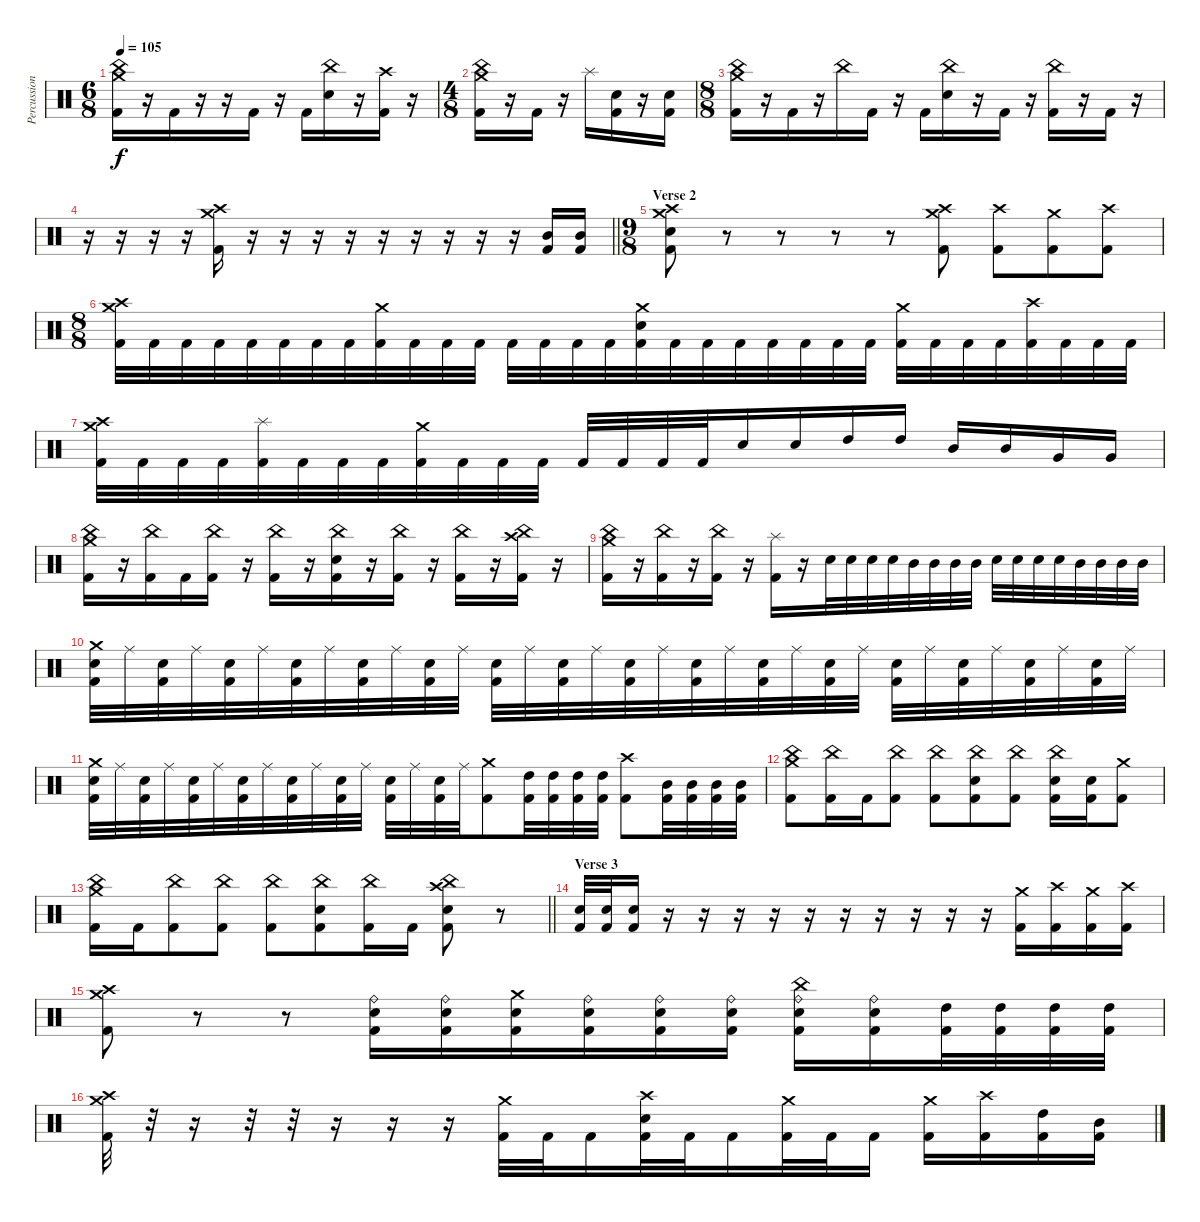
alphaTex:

\track ("Percussion" "Percussion") {instrument percussion}
\staff {score}
\articulation defaults
\ts (6 8)
\tempo 105
\clef neutral
\ks c
("Crash medium (hit)" "China (hit)" "Kick (hit) 2").16{dy f} r.16 "Kick (hit) 2".16 r.16 r.16 "Kick (hit) 2".16 r.16 "Kick (hit) 2".16 ("China (hit)" "Snare (hit) 2").16 r.16 ("Crash high (hit)" "Kick (hit) 2").16 r.16 |
\ts (4 8)
("Crash medium (hit)" "China (hit)" "Kick (hit) 2").16 r.16 "Kick (hit) 2".16 r.16 "Splash (hit)".16 ("Snare (hit) 2" "Kick (hit) 2").16 r.16 ("Snare (hit) 2" "Kick (hit) 2").16 |
\ts (8 8)
("Crash medium (hit)" "China (hit)" "Kick (hit) 2").16 r.16 "Kick (hit) 2".16 r.16 "China (hit)".16 "Kick (hit) 2".16 r.16 "Kick (hit) 2".16 ("China (hit)" "Snare (hit) 2").16 r.16 "Kick (hit) 2".16 r.16 ("China (hit)" "Kick (hit) 2").16 r.16 "Kick (hit) 2".16 r.16 |
\barLineRight lightlight
r.16 r.16 r.16 r.16 ("Crash high (hit)" "Crash medium (hit)" "Kick (hit) 2").16 r.16 r.16 r.16 r.16 r.16 r.16 r.16 r.16 r.16 ("Mid Tom (hit)" "Kick (hit) 2").16 ("Mid Tom (hit)" "Kick (hit) 2").16 |
\ts (9 8)
\section ("" "Verse 2")
("Crash high (hit)" "Crash medium (hit)" "Snare (hit) 2" "Kick (hit) 2").8 r.8 r.8 r.8 r.8 ("Crash high (hit)" "Crash medium (hit)" "Kick (hit) 2").8 ("Crash high (hit)" "Kick (hit) 2").8 ("Crash medium (hit)" "Kick (hit) 2").8 ("Crash high (hit)" "Kick (hit) 2").8 |
\ts (8 8)
("Crash medium (hit)" "Crash high (hit)" "Kick (hit) 2").32 "Kick (hit) 2".32 "Kick (hit) 2".32 "Kick (hit) 2".32 "Kick (hit) 2".32 "Kick (hit) 2".32 "Kick (hit) 2".32 "Kick (hit) 2".32 ("Crash medium (hit)" "Kick (hit) 2").32 "Kick (hit) 2".32 "Kick (hit) 2".32 "Kick (hit) 2".32 "Kick (hit) 2".32 "Kick (hit) 2".32 "Kick (hit) 2".32 "Kick (hit) 2".32 ("Crash medium (hit)" "Snare (hit) 2" "Kick (hit) 2").32 "Kick (hit) 2".32 "Kick (hit) 2".32 "Kick (hit) 2".32 "Kick (hit) 2".32 "Kick (hit) 2".32 "Kick (hit) 2".32 "Kick (hit) 2".32 ("Crash medium (hit)" "Kick (hit) 2").32 "Kick (hit) 2".32 "Kick (hit) 2".32 "Kick (hit) 2".32 ("Crash high (hit)" "Kick (hit) 2").32 "Kick (hit) 2".32 "Kick (hit) 2".32 "Kick (hit) 2".32 |
("Crash medium (hit)" "Crash high (hit)" "Kick (hit) 2").32 "Kick (hit) 2".32 "Kick (hit) 2".32 "Kick (hit) 2".32 ("Splash (hit)" "Kick (hit) 2").32 "Kick (hit) 2".32 "Kick (hit) 2".32 "Kick (hit) 2".32 ("Crash medium (hit)" "Kick (hit) 2").32 "Kick (hit) 2".32 "Kick (hit) 2".32 "Kick (hit) 2".32 "Kick (hit) 2".32 "Kick (hit) 2".32 "Kick (hit) 2".32 "Kick (hit) 2".32 "Snare (hit) 2".16 "Snare (hit) 2".16 "High Tom (hit)".16 "High Tom (hit)".16 "Mid Tom (hit)".16 "Mid Tom (hit)".16 "Very Low Tom (hit)".16 "Very Low Tom (hit)".16 |
("Crash medium (hit)" "China (hit)" "Kick (hit) 2").16 r.16 ("China (hit)" "Kick (hit) 2").16 "Kick (hit) 2".16 ("China (hit)" "Kick (hit) 2").16 r.16 ("China (hit)" "Kick (hit) 2").16 r.16 ("China (hit)" "Snare (hit) 2" "Kick (hit) 2").16 r.16 ("China (hit)" "Kick (hit) 2").16 r.16 ("China (hit)" "Kick (hit) 2").16 r.16 ("Crash high (hit)" "China (hit)" "Kick (hit) 2").16 r.16 |
("Crash medium (hit)" "China (hit)" "Kick (hit) 2").16 r.16 ("China (hit)" "Kick (hit) 2").16 r.16 ("China (hit)" "Kick (hit) 2").16 r.16 ("Splash (hit)" "Kick (hit) 2").16 r.16 "Snare (hit) 2".32 "Snare (hit) 2".32 "Snare (hit) 2".32 "Snare (hit) 2".32 "Mid Tom (hit)".32 "Mid Tom (hit)".32 "Mid Tom (hit)".32 "Mid Tom (hit)".32 "Snare (hit) 2".32 "Snare (hit) 2".32 "Snare (hit) 2".32 "Snare (hit) 2".32 "Mid Tom (hit)".32 "Mid Tom (hit)".32 "Mid Tom (hit)".32 "Mid Tom (hit)".32 |
("Crash medium (hit)" "Snare (hit) 2" "Kick (hit) 2").32 "Ride (middle)".32 ("Snare (hit) 2" "Kick (hit) 2").32 "Ride (middle)".32 ("Snare (hit) 2" "Kick (hit) 2").32 "Ride (middle)".32 ("Snare (hit) 2" "Kick (hit) 2").32 "Ride (middle)".32 ("Snare (hit) 2" "Kick (hit) 2").32 "Ride (middle)".32 ("Snare (hit) 2" "Kick (hit) 2").32 "Ride (middle)".32 ("Snare (hit) 2" "Kick (hit) 2").32 "Ride (middle)".32 ("Snare (hit) 2" "Kick (hit) 2").32 "Ride (middle)".32 ("Snare (hit) 2" "Kick (hit) 2").32 "Ride (middle)".32 ("Snare (hit) 2" "Kick (hit) 2").32 "Ride (middle)".32 ("Snare (hit) 2" "Kick (hit) 2").32 "Ride (middle)".32 ("Snare (hit) 2" "Kick (hit) 2").32 "Ride (middle)".32 ("Snare (hit) 2" "Kick (hit) 2").32 "Ride (middle)".32 ("Snare (hit) 2" "Kick (hit) 2").32 "Ride (middle)".32 ("Snare (hit) 2" "Kick (hit) 2").32 "Ride (middle)".32 ("Snare (hit) 2" "Kick (hit) 2").32 "Ride (middle)".32 |
("Crash medium (hit)" "Snare (hit) 2" "Kick (hit) 2").32 "Ride (middle)".32 ("Snare (hit) 2" "Kick (hit) 2").32 "Ride (middle)".32 ("Snare (hit) 2" "Kick (hit) 2").32 "Ride (middle)".32 ("Snare (hit) 2" "Kick (hit) 2").32 "Ride (middle)".32 ("Snare (hit) 2" "Kick (hit) 2").32 "Ride (middle)".32 ("Snare (hit) 2" "Kick (hit) 2").32 "Ride (middle)".32 ("Snare (hit) 2" "Kick (hit) 2").32 "Ride (middle)".32 ("Snare (hit) 2" "Kick (hit) 2").32 "Ride (middle)".32 ("Crash medium (hit)" "Kick (hit) 2").8 ("High Tom (hit)" "Kick (hit) 2").32 ("High Tom (hit)" "Kick (hit) 2").32 ("High Tom (hit)" "Kick (hit) 2").32 ("High Tom (hit)" "Kick (hit) 2").32 ("Crash high (hit)" "Kick (hit) 2").8 ("Mid Tom (hit)" "Kick (hit) 2").32 ("Mid Tom (hit)" "Kick (hit) 2").32 ("Mid Tom (hit)" "Kick (hit) 2").32 ("Mid Tom (hit)" "Kick (hit) 2").32 |
("Crash medium (hit)" "China (hit)" "Kick (hit) 2").8 ("China (hit)" "Kick (hit) 2").16 "Kick (hit) 2".16 ("China (hit)" "Kick (hit) 2").8 ("China (hit)" "Kick (hit) 2").8 ("China (hit)" "Snare (hit) 2" "Kick (hit) 2").8 ("China (hit)" "Kick (hit) 2").8 ("China (hit)" "Snare (hit) 2" "Kick (hit) 2").16 ("Snare (hit) 2" "Kick (hit) 2").16 ("Crash medium (hit)" "Kick (hit) 2").8 |
\barLineRight lightlight
("Crash medium (hit)" "China (hit)" "Kick (hit) 2").16 "Kick (hit) 2".16 ("China (hit)" "Kick (hit) 2").8 ("China (hit)" "Kick (hit) 2").8 ("China (hit)" "Kick (hit) 2").8 ("China (hit)" "Snare (hit) 2" "Kick (hit) 2").8 ("China (hit)" "Kick (hit) 2").16 "Kick (hit) 2".16 ("Crash high (hit)" "China (hit)" "Snare (hit) 2" "Kick (hit) 2").8 r.8 |
\section ("" "Verse 3")
("Snare (hit) 2" "Kick (hit) 2").32 ("Snare (hit) 2" "Kick (hit) 2").32 ("Snare (hit) 2" "Kick (hit) 2").16 r.16 r.16 r.16 r.16 r.16 r.16 r.16 r.16 r.16 r.16 ("Crash medium (hit)" "Kick (hit) 2").16 ("Crash high (hit)" "Kick (hit) 2").16 ("Crash medium (hit)" "Kick (hit) 2").16 ("Crash high (hit)" "Kick (hit) 2").16 |
("Crash high (hit)" "Crash medium (hit)" "Kick (hit) 2").8 r.8 r.8 ("Ride (bell)" "Snare (hit) 2" "Kick (hit) 2").16 ("Ride (bell)" "Snare (hit) 2" "Kick (hit) 2").16 ("Crash medium (hit)" "Snare (hit) 2" "Kick (hit) 2").16 ("Ride (bell)" "Snare (hit) 2" "Kick (hit) 2").16 ("Ride (bell)" "Snare (hit) 2" "Kick (hit) 2").16 ("Ride (bell)" "Snare (hit) 2" "Kick (hit) 2").16 ("China (hit)" "Ride (bell)" "Snare (hit) 2" "Kick (hit) 2").16 ("Ride (bell)" "Snare (hit) 2" "Kick (hit) 2").16 ("High Tom (hit)" "Kick (hit) 2").32 ("High Tom (hit)" "Kick (hit) 2").32 ("High Tom (hit)" "Kick (hit) 2").32 ("High Tom (hit)" "Kick (hit) 2").32 |
("Crash medium (hit)" "Crash high (hit)" "Kick (hit) 2").32 r.32 r.16 r.32 r.32 r.16 r.16 r.16 ("Crash medium (hit)" "Kick (hit) 2").32 "Kick (hit) 2".32 "Kick (hit) 2".16 ("Crash high (hit)" "Snare (hit) 2" "Kick (hit) 2").32 "Kick (hit) 2".32 "Kick (hit) 2".16 ("Crash medium (hit)" "Kick (hit) 2").32 "Kick (hit) 2".32 "Kick (hit) 2".16 ("Crash medium (hit)" "Kick (hit) 2").16 ("Crash high (hit)" "Kick (hit) 2").16 ("High Tom (hit)" "Kick (hit) 2").16 ("Mid Tom (hit)" "Kick (hit) 2").16
